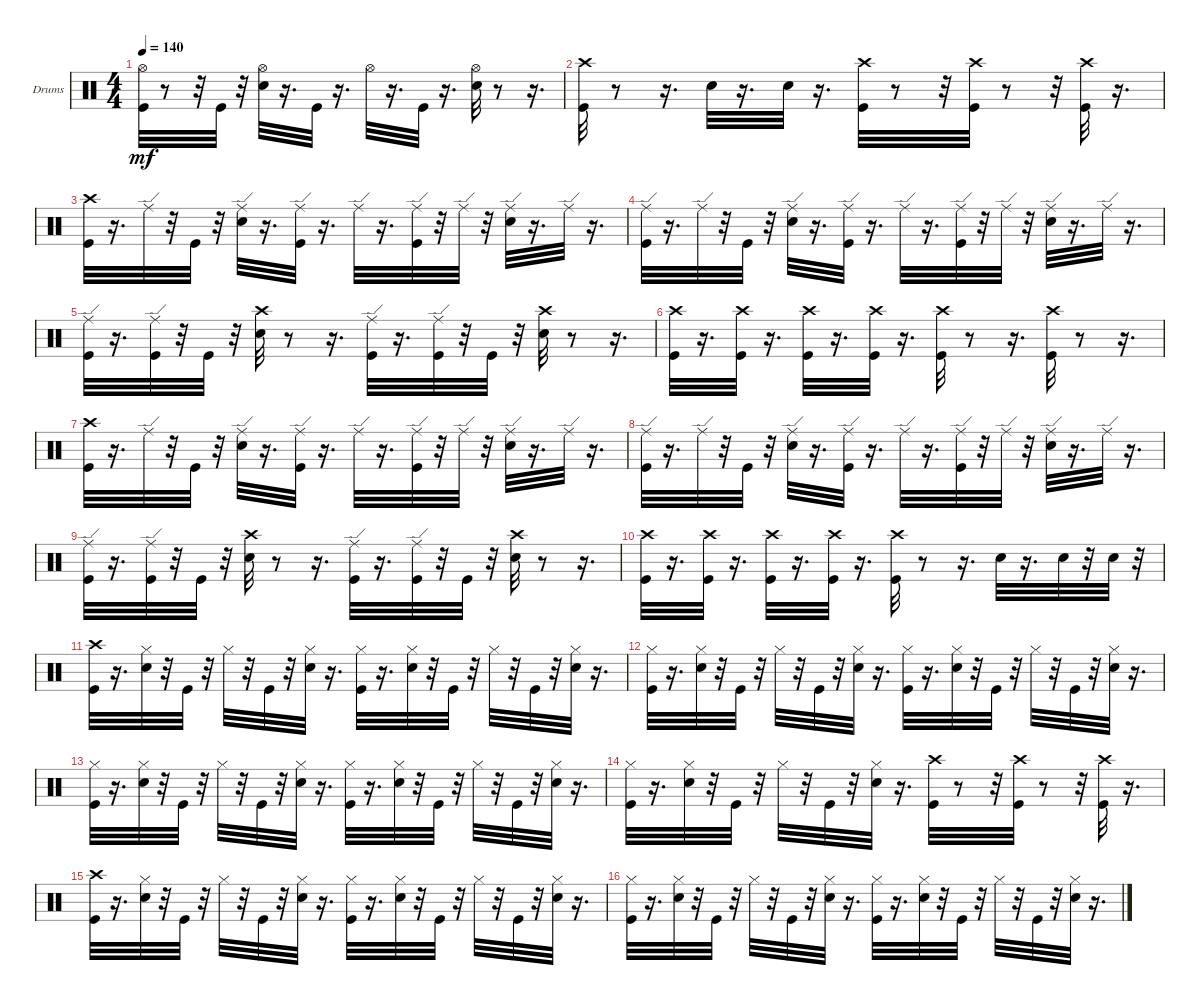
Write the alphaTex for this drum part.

\bracketExtendMode groupsimilarinstruments
\firstSystemTrackNameOrientation horizontal
\otherSystemsTrackNameOrientation horizontal
\track ("" "Drums") {instrument percussion}
\staff {score}
\articulation defaults
\ts (4 4)
\tempo 140
\clef neutral
\ks c
("Hi-Hat (open)" "Kick (hit)").32{dy mf} r.8 r.32 "Kick (hit)".32 r.32 ("Snare (hit) 2" "Hi-Hat (open)").32 r.16{d} "Kick (hit)".32 r.16{d} "Hi-Hat (open)".32 r.16{d} "Kick (hit)".32 r.16{d} ("Snare (hit) 2" "Hi-Hat (open)").32 r.8 r.16{d} |
("Crash high (hit)" "Kick (hit)").32 r.8 r.16{d} "Snare (hit) 2".32 r.16{d} "Snare (hit) 2".32 r.16{d} ("Crash high (hit)" "Kick (hit)").32 r.8 r.32 ("Crash high (hit)" "Kick (hit)").32 r.8 r.32 ("Crash high (hit)" "Kick (hit)").32 r.16{d} |
("Crash high (hit)" "Kick (hit)").32 r.16{d} "Ride (edge)".32 r.32 "Kick (hit)".32 r.32 ("Ride (edge)" "Snare (hit) 2").32 r.16{d} ("Kick (hit)" "Ride (edge)").32 r.16{d} "Ride (edge)".32 r.16{d} ("Kick (hit)" "Ride (edge)").32 r.32 "Ride (edge)".32 r.32 ("Ride (edge)" "Snare (hit) 2").32 r.16{d} "Ride (edge)".32 r.16{d} |
("Ride (edge)" "Kick (hit)").32 r.16{d} "Ride (edge)".32 r.32 "Kick (hit)".32 r.32 ("Ride (edge)" "Snare (hit) 2").32 r.16{d} ("Kick (hit)" "Ride (edge)").32 r.16{d} "Ride (edge)".32 r.16{d} ("Kick (hit)" "Ride (edge)").32 r.32 "Ride (edge)".32 r.32 ("Ride (edge)" "Snare (hit) 2").32 r.16{d} "Ride (edge)".32 r.16{d} |
("Ride (edge)" "Kick (hit)").32 r.16{d} ("Ride (edge)" "Kick (hit)").32 r.32 "Kick (hit)".32 r.32 ("Crash high (hit)" "Snare (hit) 2").32 r.8 r.16{d} ("Ride (edge)" "Kick (hit)").32 r.16{d} ("Kick (hit)" "Ride (edge)").32 r.32 "Kick (hit)".32 r.32 ("Crash high (hit)" "Snare (hit) 2").32 r.8 r.16{d} |
("Crash high (hit)" "Kick (hit)").32 r.16{d} ("Crash high (hit)" "Kick (hit)").32 r.16{d} ("Crash high (hit)" "Kick (hit)").32 r.16{d} ("Crash high (hit)" "Kick (hit)").32 r.16{d} ("Crash high (hit)" "Kick (hit)").32 r.8 r.16{d} ("Crash high (hit)" "Kick (hit)").32 r.8 r.16{d} |
("Crash high (hit)" "Kick (hit)").32 r.16{d} "Ride (edge)".32 r.32 "Kick (hit)".32 r.32 ("Ride (edge)" "Snare (hit) 2").32 r.16{d} ("Kick (hit)" "Ride (edge)").32 r.16{d} "Ride (edge)".32 r.16{d} ("Kick (hit)" "Ride (edge)").32 r.32 "Ride (edge)".32 r.32 ("Ride (edge)" "Snare (hit) 2").32 r.16{d} "Ride (edge)".32 r.16{d} |
("Ride (edge)" "Kick (hit)").32 r.16{d} "Ride (edge)".32 r.32 "Kick (hit)".32 r.32 ("Ride (edge)" "Snare (hit) 2").32 r.16{d} ("Kick (hit)" "Ride (edge)").32 r.16{d} "Ride (edge)".32 r.16{d} ("Kick (hit)" "Ride (edge)").32 r.32 "Ride (edge)".32 r.32 ("Ride (edge)" "Snare (hit) 2").32 r.16{d} "Ride (edge)".32 r.16{d} |
("Ride (edge)" "Kick (hit)").32 r.16{d} ("Ride (edge)" "Kick (hit)").32 r.32 "Kick (hit)".32 r.32 ("Crash high (hit)" "Snare (hit) 2").32 r.8 r.16{d} ("Ride (edge)" "Kick (hit)").32 r.16{d} ("Kick (hit)" "Ride (edge)").32 r.32 "Kick (hit)".32 r.32 ("Crash high (hit)" "Snare (hit) 2").32 r.8 r.16{d} |
("Crash high (hit)" "Kick (hit)").32 r.16{d} ("Crash high (hit)" "Kick (hit)").32 r.16{d} ("Crash high (hit)" "Kick (hit)").32 r.16{d} ("Crash high (hit)" "Kick (hit)").32 r.16{d} ("Crash high (hit)" "Kick (hit)").32 r.8 r.16{d} "Snare (hit) 2".32 r.16{d} "Snare (hit) 2".32 r.32 "Snare (hit) 2".32 r.32 |
("Crash high (hit)" "Kick (hit)").32 r.16{d} ("Snare (hit) 2" "Hi-Hat (closed)").32 r.32 "Kick (hit)".32 r.32 "Hi-Hat (closed)".32 r.32 "Kick (hit)".32 r.32 ("Snare (hit) 2" "Hi-Hat (closed)").32 r.16{d} ("Kick (hit)" "Hi-Hat (closed)").32 r.16{d} ("Snare (hit) 2" "Hi-Hat (closed)").32 r.32 "Kick (hit)".32 r.32 "Hi-Hat (closed)".32 r.32 "Kick (hit)".32 r.32 ("Snare (hit) 2" "Hi-Hat (closed)").32 r.16{d} |
("Hi-Hat (closed)" "Kick (hit)").32 r.16{d} ("Snare (hit) 2" "Hi-Hat (closed)").32 r.32 "Kick (hit)".32 r.32 "Hi-Hat (closed)".32 r.32 "Kick (hit)".32 r.32 ("Snare (hit) 2" "Hi-Hat (closed)").32 r.16{d} ("Kick (hit)" "Hi-Hat (closed)").32 r.16{d} ("Snare (hit) 2" "Hi-Hat (closed)").32 r.32 "Kick (hit)".32 r.32 "Hi-Hat (closed)".32 r.32 "Kick (hit)".32 r.32 ("Snare (hit) 2" "Hi-Hat (closed)").32 r.16{d} |
("Hi-Hat (closed)" "Kick (hit)").32 r.16{d} ("Snare (hit) 2" "Hi-Hat (closed)").32 r.32 "Kick (hit)".32 r.32 "Hi-Hat (closed)".32 r.32 "Kick (hit)".32 r.32 ("Snare (hit) 2" "Hi-Hat (closed)").32 r.16{d} ("Kick (hit)" "Hi-Hat (closed)").32 r.16{d} ("Snare (hit) 2" "Hi-Hat (closed)").32 r.32 "Kick (hit)".32 r.32 "Hi-Hat (closed)".32 r.32 "Kick (hit)".32 r.32 ("Snare (hit) 2" "Hi-Hat (closed)").32 r.16{d} |
("Hi-Hat (closed)" "Kick (hit)").32 r.16{d} ("Snare (hit) 2" "Hi-Hat (closed)").32 r.32 "Kick (hit)".32 r.32 "Hi-Hat (closed)".32 r.32 "Kick (hit)".32 r.32 ("Snare (hit) 2" "Hi-Hat (closed)").32 r.16{d} ("Crash high (hit)" "Kick (hit)").32 r.8 r.32 ("Crash high (hit)" "Kick (hit)").32 r.8 r.32 ("Crash high (hit)" "Kick (hit)").32 r.16{d} |
("Crash high (hit)" "Kick (hit)").32 r.16{d} ("Snare (hit) 2" "Hi-Hat (closed)").32 r.32 "Kick (hit)".32 r.32 "Hi-Hat (closed)".32 r.32 "Kick (hit)".32 r.32 ("Snare (hit) 2" "Hi-Hat (closed)").32 r.16{d} ("Kick (hit)" "Hi-Hat (closed)").32 r.16{d} ("Snare (hit) 2" "Hi-Hat (closed)").32 r.32 "Kick (hit)".32 r.32 "Hi-Hat (closed)".32 r.32 "Kick (hit)".32 r.32 ("Snare (hit) 2" "Hi-Hat (closed)").32 r.16{d} |
("Hi-Hat (closed)" "Kick (hit)").32 r.16{d} ("Snare (hit) 2" "Hi-Hat (closed)").32 r.32 "Kick (hit)".32 r.32 "Hi-Hat (closed)".32 r.32 "Kick (hit)".32 r.32 ("Snare (hit) 2" "Hi-Hat (closed)").32 r.16{d} ("Kick (hit)" "Hi-Hat (closed)").32 r.16{d} ("Snare (hit) 2" "Hi-Hat (closed)").32 r.32 "Kick (hit)".32 r.32 "Hi-Hat (closed)".32 r.32 "Kick (hit)".32 r.32 ("Snare (hit) 2" "Hi-Hat (closed)").32 r.16{d}
